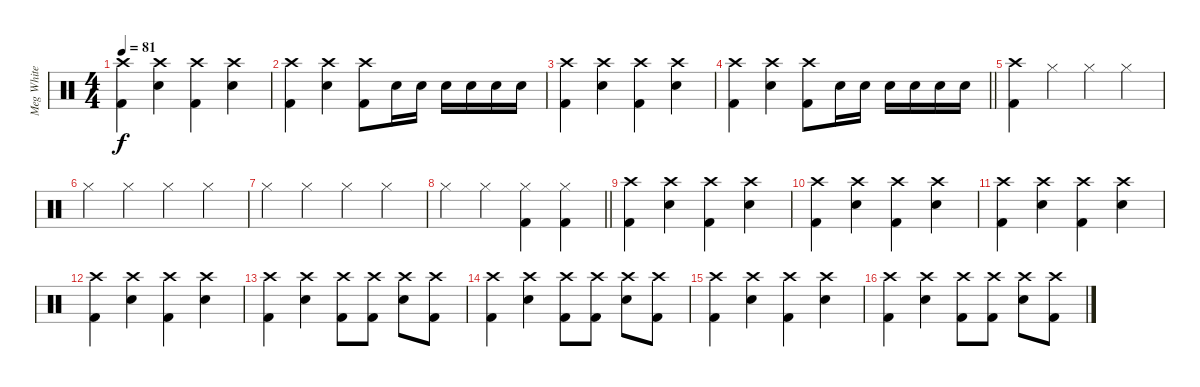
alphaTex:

\track ("Meg White" "Meg White") {instrument percussion}
\staff {score}
\articulation defaults
\ts (4 4)
\tempo 81
\clef neutral
\ks c
("Crash high (hit)" "Kick (hit) 2").4{dy f} ("Crash high (hit)" "Electric Snare (hit)").4 ("Crash high (hit)" "Kick (hit) 2").4 ("Crash high (hit)" "Electric Snare (hit)").4 |
("Crash high (hit)" "Kick (hit) 2").4 ("Crash high (hit)" "Electric Snare (hit)").4 ("Crash high (hit)" "Kick (hit) 2").8 "Electric Snare (hit)".16 "Electric Snare (hit)".16 "Electric Snare (hit)".16 "Electric Snare (hit)".16 "Electric Snare (hit)".16 "Electric Snare (hit)".16 |
("Crash high (hit)" "Kick (hit) 2").4 ("Crash high (hit)" "Electric Snare (hit)").4 ("Crash high (hit)" "Kick (hit) 2").4 ("Crash high (hit)" "Electric Snare (hit)").4 |
\barLineRight lightlight
("Crash high (hit)" "Kick (hit) 2").4 ("Crash high (hit)" "Electric Snare (hit)").4 ("Crash high (hit)" "Kick (hit) 2").8 "Electric Snare (hit)".16 "Electric Snare (hit)".16 "Electric Snare (hit)".16 "Electric Snare (hit)".16 "Electric Snare (hit)".16 "Electric Snare (hit)".16 |
("Crash high (hit)" "Kick (hit) 2").4 "Hi-Hat (closed)".4 "Hi-Hat (closed)".4 "Hi-Hat (closed)".4 |
"Hi-Hat (closed)".4 "Hi-Hat (closed)".4 "Hi-Hat (closed)".4 "Hi-Hat (closed)".4 |
"Hi-Hat (closed)".4 "Hi-Hat (closed)".4 "Hi-Hat (closed)".4 "Hi-Hat (closed)".4 |
\barLineRight lightlight "Hi-Hat (closed)".4 "Hi-Hat (closed)".4
("Hi-Hat (closed)" "Kick (hit) 2").4 ("Hi-Hat (closed)" "Kick (hit) 2").4 |
("Crash high (hit)" "Kick (hit) 2").4 ("Crash high (hit)" "Electric Snare (hit)").4 ("Crash high (hit)" "Kick (hit) 2").4 ("Crash high (hit)" "Electric Snare (hit)").4 |
("Crash high (hit)" "Kick (hit) 2").4 ("Crash high (hit)" "Electric Snare (hit)").4 ("Crash high (hit)" "Kick (hit) 2").4 ("Crash high (hit)" "Electric Snare (hit)").4 |
("Crash high (hit)" "Kick (hit) 2").4 ("Crash high (hit)" "Electric Snare (hit)").4 ("Crash high (hit)" "Kick (hit) 2").4 ("Crash high (hit)" "Electric Snare (hit)").4 |
("Crash high (hit)" "Kick (hit) 2").4 ("Crash high (hit)" "Electric Snare (hit)").4 ("Crash high (hit)" "Kick (hit) 2").4 ("Crash high (hit)" "Electric Snare (hit)").4 |
("Crash high (hit)" "Kick (hit) 2").4 ("Crash high (hit)" "Electric Snare (hit)").4 ("Crash high (hit)" "Kick (hit) 2").8 ("Crash high (hit)" "Kick (hit) 2").8 ("Crash high (hit)" "Electric Snare (hit)").8 ("Crash high (hit)" "Kick (hit) 2").8 |
("Crash high (hit)" "Kick (hit) 2").4 ("Crash high (hit)" "Electric Snare (hit)").4 ("Crash high (hit)" "Kick (hit) 2").8 ("Crash high (hit)" "Kick (hit) 2").8 ("Crash high (hit)" "Electric Snare (hit)").8 ("Crash high (hit)" "Kick (hit) 2").8 |
("Crash high (hit)" "Kick (hit) 2").4 ("Crash high (hit)" "Electric Snare (hit)").4 ("Crash high (hit)" "Kick (hit) 2").4 ("Crash high (hit)" "Electric Snare (hit)").4 |
("Crash high (hit)" "Kick (hit) 2").4 ("Crash high (hit)" "Electric Snare (hit)").4 ("Crash high (hit)" "Kick (hit) 2").8 ("Crash high (hit)" "Kick (hit) 2").8 ("Crash high (hit)" "Electric Snare (hit)").8 ("Crash high (hit)" "Kick (hit) 2").8
